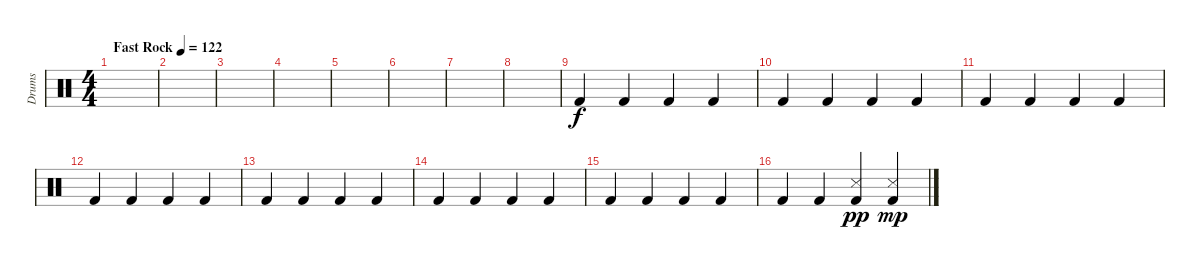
\track ("Drums" "Drums") {instrument percussion}
\staff {score}
\articulation defaults
\ts (4 4)
\tempo (122 "Fast Rock")
\clef neutral
\ks c
|
|
|
|
|
|
|
|
"Kick (hit) 2".4 "Kick (hit) 2".4 "Kick (hit) 2".4 "Kick (hit) 2".4 |
"Kick (hit) 2".4 "Kick (hit) 2".4 "Kick (hit) 2".4 "Kick (hit) 2".4 |
"Kick (hit) 2".4 "Kick (hit) 2".4 "Kick (hit) 2".4 "Kick (hit) 2".4 |
"Kick (hit) 2".4 "Kick (hit) 2".4 "Kick (hit) 2".4 "Kick (hit) 2".4 |
"Kick (hit) 2".4 "Kick (hit) 2".4 "Kick (hit) 2".4 "Kick (hit) 2".4 |
"Kick (hit) 2".4 "Kick (hit) 2".4 "Kick (hit) 2".4 "Kick (hit) 2".4 |
"Kick (hit) 2".4 "Kick (hit) 2".4 "Kick (hit) 2".4 "Kick (hit) 2".4 |
"Kick (hit) 2".4 "Kick (hit) 2".4 ("Kick (hit) 2" "Snare (side stick) 3").4{dy pp} ("Kick (hit) 2" "Snare (side stick) 3").4{dy mp}
